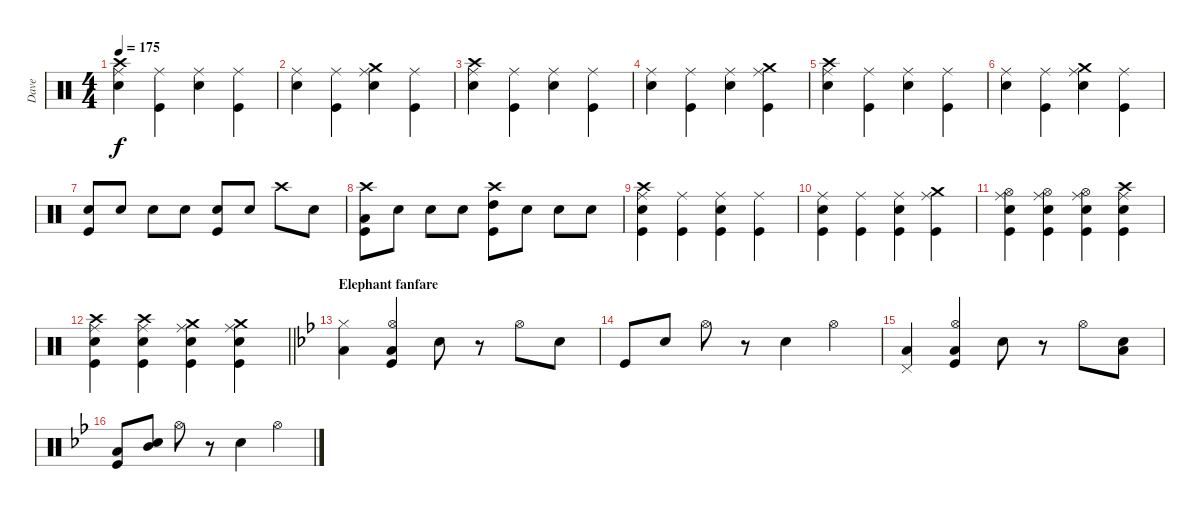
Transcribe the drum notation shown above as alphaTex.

\track ("Dave" "Dave") {instrument percussion}
\staff {score}
\articulation defaults
\ts (4 4)
\tempo 175
\clef neutral
\ks c
("Crash high (hit)" "Ride (middle)" "Snare (hit) 2").4{dy f} ("Ride (middle)" "Kick (hit)").4 ("Ride (middle)" "Snare (hit) 2").4 ("Ride (middle)" "Kick (hit)").4 |
("Ride (middle)" "Snare (hit) 2").4 ("Ride (middle)" "Kick (hit)").4 ("Crash medium (hit)" "Ride (middle)" "Snare (hit) 2").4 ("Ride (middle)" "Kick (hit)").4 |
("Crash high (hit)" "Ride (middle)" "Snare (hit) 2").4 ("Ride (middle)" "Kick (hit)").4 ("Ride (middle)" "Snare (hit) 2").4 ("Ride (middle)" "Kick (hit)").4 |
("Ride (middle)" "Snare (hit) 2").4 ("Ride (middle)" "Kick (hit)").4 ("Ride (middle)" "Snare (hit) 2").4 ("Crash medium (hit)" "Ride (middle)" "Kick (hit)").4 |
("Crash high (hit)" "Ride (middle)" "Snare (hit) 2").4 ("Ride (middle)" "Kick (hit)").4 ("Ride (middle)" "Snare (hit) 2").4 ("Ride (middle)" "Kick (hit)").4 |
("Ride (middle)" "Snare (hit) 2").4 ("Ride (middle)" "Kick (hit)").4 ("Crash medium (hit)" "Ride (middle)" "Snare (hit) 2").4 ("Ride (middle)" "Kick (hit)").4 |
("Snare (hit) 2" "Kick (hit)").8 "Snare (hit) 2".8 "Snare (hit) 2".8 "Snare (hit) 2".8 ("Snare (hit) 2" "Kick (hit)").8 "Snare (hit) 2".8 "Crash high (hit)".8 "Snare (hit) 2".8 |
("Crash high (hit)" "Low Tom (hit)" "Kick (hit)").8 "Snare (hit) 2".8 "Snare (hit) 2".8 "Snare (hit) 2".8 ("Crash high (hit)" "High Tom (hit)" "Kick (hit)").8 "Snare (hit) 2".8 "Snare (hit) 2".8 "Snare (hit) 2".8 |
("Crash high (hit)" "Ride (middle)" "Snare (hit) 2" "Kick (hit)").4 ("Ride (middle)" "Kick (hit)").4 ("Ride (middle)" "Snare (hit) 2" "Kick (hit)").4 ("Ride (middle)" "Kick (hit)").4 |
("Ride (middle)" "Snare (hit) 2" "Kick (hit)").4 ("Ride (middle)" "Kick (hit)").4 ("Ride (middle)" "Snare (hit) 2" "Kick (hit)").4 ("Crash medium (hit)" "Ride (middle)" "Kick (hit)").4 |
("Hi-Hat (open)" "Ride (middle)" "Snare (hit) 2" "Kick (hit)").4 ("Hi-Hat (open)" "Ride (middle)" "Snare (hit) 2" "Kick (hit)").4 ("Hi-Hat (open)" "Ride (middle)" "Snare (hit) 2" "Kick (hit)").4 ("Crash high (hit)" "Ride (middle)" "Snare (hit) 2" "Kick (hit)").4 |
\barLineRight lightlight
("Crash high (hit)" "Ride (middle)" "Snare (hit) 2" "Kick (hit)").4 ("Crash high (hit)" "Ride (middle)" "Snare (hit) 2" "Kick (hit)").4 ("Crash medium (hit)" "Ride (middle)" "Snare (hit) 2" "Kick (hit)").4 ("Crash medium (hit)" "Ride (middle)" "Snare (hit) 2" "Kick (hit)").4 |
\section ("" "Elephant fanfare")
\ks gminor
("Hi-Hat (closed)" "Low Floor Tom (hit)").4 ("Hi-Hat (open)" "Low Floor Tom (hit)" "Kick (hit)").4 "Snare (hit) 2".8 r.8 "Hi-Hat (open)".8 "Snare (hit) 2".8 |
"Kick (hit)".8 "Snare (hit) 2".8 "Hi-Hat (open)".8 r.8 "Snare (hit) 2".4 "Hi-Hat (open)".4 |
("Pedal Hi-Hat (hit)" "Low Floor Tom (hit)").4 ("Hi-Hat (open)" "Low Floor Tom (hit)" "Kick (hit)").4 "Snare (hit) 2".8 r.8 "Hi-Hat (open)".8 ("Snare (hit) 2" "Low Floor Tom (hit)").8 |
("Low Tom (hit)" "Kick (hit)").8 ("Snare (hit) 2" "Mid Tom (hit)").8 "Hi-Hat (open)".8 r.8 "Snare (hit) 2".4 "Hi-Hat (open)".4
